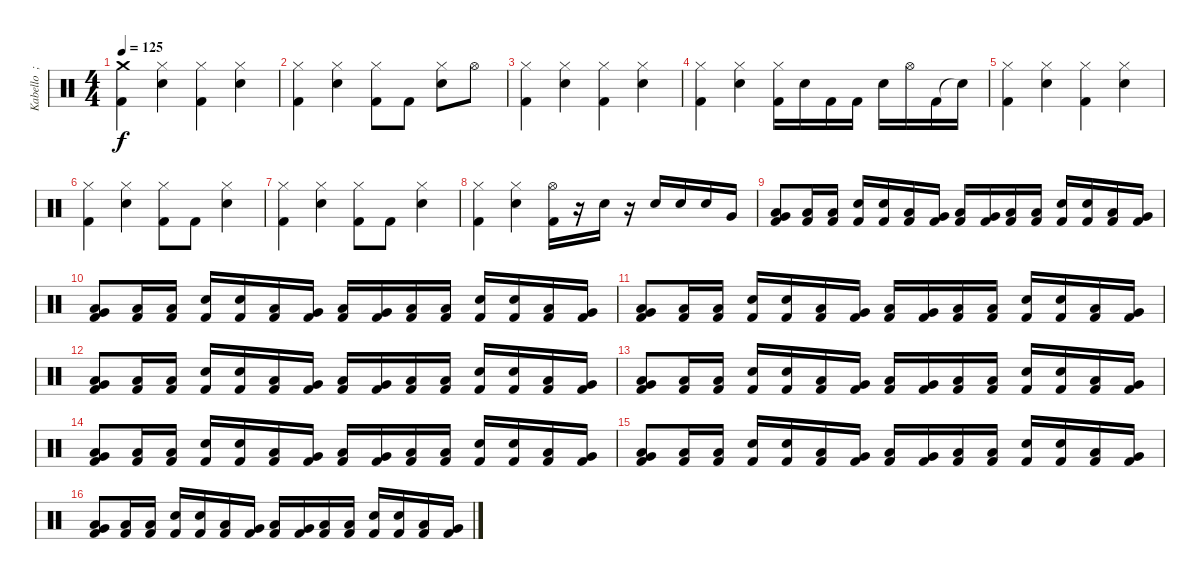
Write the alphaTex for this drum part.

\track ("Kabello  ;-)" "Kabello  ;") {instrument percussion}
\staff {score}
\articulation defaults
\ts (4 4)
\tempo 125
\clef neutral
\ks c
("Crash medium (hit)" "Kick (hit) 2").4{dy f} ("Hi-Hat (closed)" "Electric Snare (hit)").4 ("Hi-Hat (closed)" "Kick (hit) 2").4 ("Hi-Hat (closed)" "Electric Snare (hit)").4 |
("Hi-Hat (closed)" "Kick (hit) 2").4 ("Hi-Hat (closed)" "Electric Snare (hit)").4 ("Hi-Hat (closed)" "Kick (hit) 2").8 "Kick (hit) 2".8 ("Hi-Hat (closed)" "Electric Snare (hit)").8 "Hi-Hat (open)".8 |
("Hi-Hat (closed)" "Kick (hit) 2").4 ("Hi-Hat (closed)" "Electric Snare (hit)").4 ("Hi-Hat (closed)" "Kick (hit) 2").4 ("Hi-Hat (closed)" "Electric Snare (hit)").4 |
("Hi-Hat (closed)" "Kick (hit) 2").4 ("Hi-Hat (closed)" "Electric Snare (hit)").4 ("Hi-Hat (closed)" "Kick (hit) 2").16 "Electric Snare (hit)".16 "Kick (hit) 2".16 "Kick (hit) 2".16 "Electric Snare (hit)".16 "Hi-Hat (open)".16 "Kick (hit) 2".16 "Snare (hit)"{t}.16 |
("Hi-Hat (closed)" "Kick (hit) 2").4 ("Hi-Hat (closed)" "Electric Snare (hit)").4 ("Hi-Hat (closed)" "Kick (hit) 2").4 ("Hi-Hat (closed)" "Electric Snare (hit)").4 |
("Hi-Hat (closed)" "Kick (hit) 2").4 ("Hi-Hat (closed)" "Electric Snare (hit)").4 ("Hi-Hat (closed)" "Kick (hit) 2").8 "Kick (hit) 2".8 ("Hi-Hat (closed)" "Electric Snare (hit)").4 |
("Hi-Hat (closed)" "Kick (hit) 2").4 ("Hi-Hat (closed)" "Electric Snare (hit)").4 ("Hi-Hat (closed)" "Kick (hit) 2").8 "Kick (hit) 2".8 ("Hi-Hat (closed)" "Electric Snare (hit)").4 |
("Hi-Hat (closed)" "Kick (hit) 2").4 ("Hi-Hat (closed)" "Electric Snare (hit)").4 ("Hi-Hat (open)" "Kick (hit) 2").16 r.16 "Electric Snare (hit)".16 r.16 "Electric Snare (hit)".16 "Electric Snare (hit)".16 "Electric Snare (hit)".16 "Very Low Tom (hit)".16 |
("Very Low Tom (hit)" "Low Floor Tom (hit)" "Kick (hit) 2").8 ("Low Floor Tom (hit)" "Kick (hit) 2").16 ("Low Floor Tom (hit)" "Kick (hit) 2").16 ("Electric Snare (hit)" "Kick (hit) 2").16 ("Electric Snare (hit)" "Kick (hit) 2").16 ("Low Tom (hit)" "Kick (hit) 2").16 ("Very Low Tom (hit)" "Kick (hit) 2").16 ("Low Tom (hit)" "Kick (hit) 2").16 ("Very Low Tom (hit)" "Kick (hit) 2").16 ("Low Floor Tom (hit)" "Kick (hit) 2").16 ("Low Floor Tom (hit)" "Kick (hit) 2").16 ("Electric Snare (hit)" "Kick (hit) 2").16 ("Electric Snare (hit)" "Kick (hit) 2").16 ("Low Tom (hit)" "Kick (hit) 2").16 ("Very Low Tom (hit)" "Kick (hit) 2").16 |
("Very Low Tom (hit)" "Low Floor Tom (hit)" "Kick (hit) 2").8 ("Low Floor Tom (hit)" "Kick (hit) 2").16 ("Low Floor Tom (hit)" "Kick (hit) 2").16 ("Electric Snare (hit)" "Kick (hit) 2").16 ("Electric Snare (hit)" "Kick (hit) 2").16 ("Low Tom (hit)" "Kick (hit) 2").16 ("Very Low Tom (hit)" "Kick (hit) 2").16 ("Low Tom (hit)" "Kick (hit) 2").16 ("Very Low Tom (hit)" "Kick (hit) 2").16 ("Low Floor Tom (hit)" "Kick (hit) 2").16 ("Low Floor Tom (hit)" "Kick (hit) 2").16 ("Electric Snare (hit)" "Kick (hit) 2").16 ("Electric Snare (hit)" "Kick (hit) 2").16 ("Low Tom (hit)" "Kick (hit) 2").16 ("Very Low Tom (hit)" "Kick (hit) 2").16 |
("Very Low Tom (hit)" "Low Floor Tom (hit)" "Kick (hit) 2").8 ("Low Floor Tom (hit)" "Kick (hit) 2").16 ("Low Floor Tom (hit)" "Kick (hit) 2").16 ("Electric Snare (hit)" "Kick (hit) 2").16 ("Electric Snare (hit)" "Kick (hit) 2").16 ("Low Tom (hit)" "Kick (hit) 2").16 ("Very Low Tom (hit)" "Kick (hit) 2").16 ("Low Tom (hit)" "Kick (hit) 2").16 ("Very Low Tom (hit)" "Kick (hit) 2").16 ("Low Floor Tom (hit)" "Kick (hit) 2").16 ("Low Floor Tom (hit)" "Kick (hit) 2").16 ("Electric Snare (hit)" "Kick (hit) 2").16 ("Electric Snare (hit)" "Kick (hit) 2").16 ("Low Tom (hit)" "Kick (hit) 2").16 ("Very Low Tom (hit)" "Kick (hit) 2").16 |
("Very Low Tom (hit)" "Low Floor Tom (hit)" "Kick (hit) 2").8 ("Low Floor Tom (hit)" "Kick (hit) 2").16 ("Low Floor Tom (hit)" "Kick (hit) 2").16 ("Electric Snare (hit)" "Kick (hit) 2").16 ("Electric Snare (hit)" "Kick (hit) 2").16 ("Low Tom (hit)" "Kick (hit) 2").16 ("Very Low Tom (hit)" "Kick (hit) 2").16 ("Low Tom (hit)" "Kick (hit) 2").16 ("Very Low Tom (hit)" "Kick (hit) 2").16 ("Low Floor Tom (hit)" "Kick (hit) 2").16 ("Low Floor Tom (hit)" "Kick (hit) 2").16 ("Electric Snare (hit)" "Kick (hit) 2").16 ("Electric Snare (hit)" "Kick (hit) 2").16 ("Low Tom (hit)" "Kick (hit) 2").16 ("Very Low Tom (hit)" "Kick (hit) 2").16 |
("Very Low Tom (hit)" "Low Floor Tom (hit)" "Kick (hit) 2").8 ("Low Floor Tom (hit)" "Kick (hit) 2").16 ("Low Floor Tom (hit)" "Kick (hit) 2").16 ("Electric Snare (hit)" "Kick (hit) 2").16 ("Electric Snare (hit)" "Kick (hit) 2").16 ("Low Tom (hit)" "Kick (hit) 2").16 ("Very Low Tom (hit)" "Kick (hit) 2").16 ("Low Tom (hit)" "Kick (hit) 2").16 ("Very Low Tom (hit)" "Kick (hit) 2").16 ("Low Floor Tom (hit)" "Kick (hit) 2").16 ("Low Floor Tom (hit)" "Kick (hit) 2").16 ("Electric Snare (hit)" "Kick (hit) 2").16 ("Electric Snare (hit)" "Kick (hit) 2").16 ("Low Tom (hit)" "Kick (hit) 2").16 ("Very Low Tom (hit)" "Kick (hit) 2").16 |
("Very Low Tom (hit)" "Low Floor Tom (hit)" "Kick (hit) 2").8 ("Low Floor Tom (hit)" "Kick (hit) 2").16 ("Low Floor Tom (hit)" "Kick (hit) 2").16 ("Electric Snare (hit)" "Kick (hit) 2").16 ("Electric Snare (hit)" "Kick (hit) 2").16 ("Low Tom (hit)" "Kick (hit) 2").16 ("Very Low Tom (hit)" "Kick (hit) 2").16 ("Low Tom (hit)" "Kick (hit) 2").16 ("Very Low Tom (hit)" "Kick (hit) 2").16 ("Low Floor Tom (hit)" "Kick (hit) 2").16 ("Low Floor Tom (hit)" "Kick (hit) 2").16 ("Electric Snare (hit)" "Kick (hit) 2").16 ("Electric Snare (hit)" "Kick (hit) 2").16 ("Low Tom (hit)" "Kick (hit) 2").16 ("Very Low Tom (hit)" "Kick (hit) 2").16 |
("Very Low Tom (hit)" "Low Floor Tom (hit)" "Kick (hit) 2").8 ("Low Floor Tom (hit)" "Kick (hit) 2").16 ("Low Floor Tom (hit)" "Kick (hit) 2").16 ("Electric Snare (hit)" "Kick (hit) 2").16 ("Electric Snare (hit)" "Kick (hit) 2").16 ("Low Tom (hit)" "Kick (hit) 2").16 ("Very Low Tom (hit)" "Kick (hit) 2").16 ("Low Tom (hit)" "Kick (hit) 2").16 ("Very Low Tom (hit)" "Kick (hit) 2").16 ("Low Floor Tom (hit)" "Kick (hit) 2").16 ("Low Floor Tom (hit)" "Kick (hit) 2").16 ("Electric Snare (hit)" "Kick (hit) 2").16 ("Electric Snare (hit)" "Kick (hit) 2").16 ("Low Tom (hit)" "Kick (hit) 2").16 ("Very Low Tom (hit)" "Kick (hit) 2").16 |
("Very Low Tom (hit)" "Low Floor Tom (hit)" "Kick (hit) 2").8 ("Low Floor Tom (hit)" "Kick (hit) 2").16 ("Low Floor Tom (hit)" "Kick (hit) 2").16 ("Electric Snare (hit)" "Kick (hit) 2").16 ("Electric Snare (hit)" "Kick (hit) 2").16 ("Low Tom (hit)" "Kick (hit) 2").16 ("Very Low Tom (hit)" "Kick (hit) 2").16 ("Low Tom (hit)" "Kick (hit) 2").16 ("Very Low Tom (hit)" "Kick (hit) 2").16 ("Low Floor Tom (hit)" "Kick (hit) 2").16 ("Low Floor Tom (hit)" "Kick (hit) 2").16 ("Electric Snare (hit)" "Kick (hit) 2").16 ("Electric Snare (hit)" "Kick (hit) 2").16 ("Low Tom (hit)" "Kick (hit) 2").16 ("Very Low Tom (hit)" "Kick (hit) 2").16
